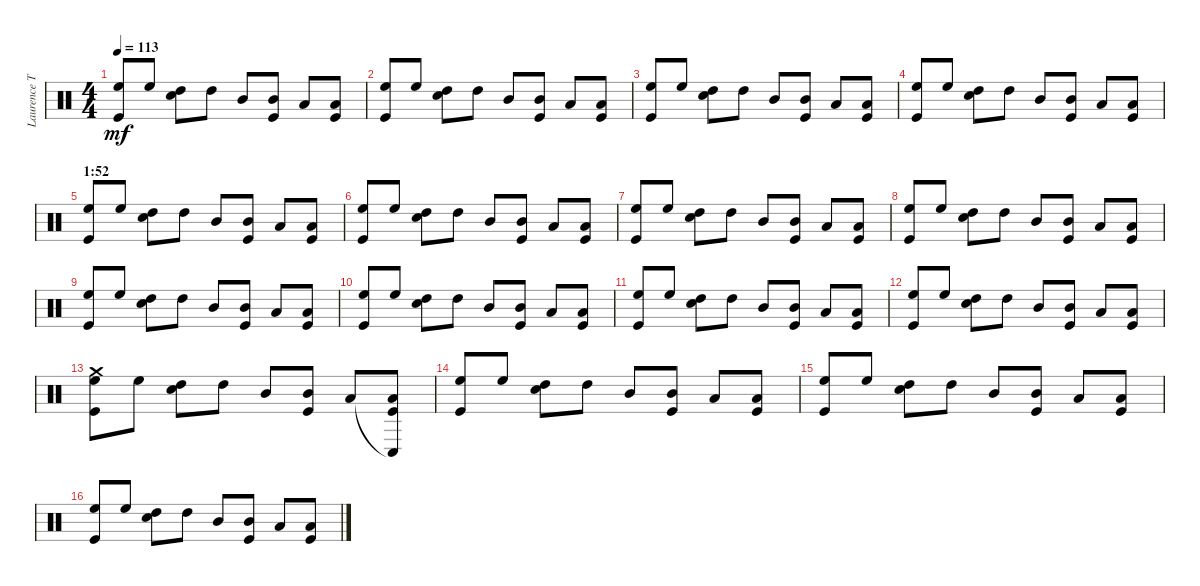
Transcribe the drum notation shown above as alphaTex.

\track ("Laurence Tolhurst (drums)" "Laurence T") {instrument percussion}
\staff {score}
\articulation defaults
\ts (4 4)
\tempo 113
\clef neutral
\ks c
("High Floor Tom (hit)" "Kick (hit)").8{dy mf} "High Floor Tom (hit)".8 ("High Tom (hit)" "Snare (hit) 2").8 "High Tom (hit)".8 "Mid Tom (hit)".8 ("Mid Tom (hit)" "Kick (hit)").8 "Low Tom (hit)".8 ("Low Tom (hit)" "Kick (hit)").8 |
("High Floor Tom (hit)" "Kick (hit)").8 "High Floor Tom (hit)".8 ("High Tom (hit)" "Snare (hit) 2").8 "High Tom (hit)".8 "Mid Tom (hit)".8 ("Mid Tom (hit)" "Kick (hit)").8 "Low Tom (hit)".8 ("Low Tom (hit)" "Kick (hit)").8 |
("High Floor Tom (hit)" "Kick (hit)").8 "High Floor Tom (hit)".8 ("High Tom (hit)" "Snare (hit) 2").8 "High Tom (hit)".8 "Mid Tom (hit)".8 ("Mid Tom (hit)" "Kick (hit)").8 "Low Tom (hit)".8 ("Low Tom (hit)" "Kick (hit)").8 |
("High Floor Tom (hit)" "Kick (hit)").8 "High Floor Tom (hit)".8 ("High Tom (hit)" "Snare (hit) 2").8 "High Tom (hit)".8 "Mid Tom (hit)".8 ("Mid Tom (hit)" "Kick (hit)").8 "Low Tom (hit)".8 ("Low Tom (hit)" "Kick (hit)").8 |
\section ("" "1:52")
("High Floor Tom (hit)" "Kick (hit)").8 "High Floor Tom (hit)".8 ("High Tom (hit)" "Snare (hit) 2").8 "High Tom (hit)".8 "Mid Tom (hit)".8 ("Mid Tom (hit)" "Kick (hit)").8 "Low Tom (hit)".8 ("Low Tom (hit)" "Kick (hit)").8 |
("High Floor Tom (hit)" "Kick (hit)").8 "High Floor Tom (hit)".8 ("High Tom (hit)" "Snare (hit) 2").8 "High Tom (hit)".8 "Mid Tom (hit)".8 ("Mid Tom (hit)" "Kick (hit)").8 "Low Tom (hit)".8 ("Low Tom (hit)" "Kick (hit)").8 |
("High Floor Tom (hit)" "Kick (hit)").8 "High Floor Tom (hit)".8 ("High Tom (hit)" "Snare (hit) 2").8 "High Tom (hit)".8 "Mid Tom (hit)".8 ("Mid Tom (hit)" "Kick (hit)").8 "Low Tom (hit)".8 ("Low Tom (hit)" "Kick (hit)").8 |
("High Floor Tom (hit)" "Kick (hit)").8 "High Floor Tom (hit)".8 ("High Tom (hit)" "Snare (hit) 2").8 "High Tom (hit)".8 "Mid Tom (hit)".8 ("Mid Tom (hit)" "Kick (hit)").8 "Low Tom (hit)".8 ("Low Tom (hit)" "Kick (hit)").8 |
("High Floor Tom (hit)" "Kick (hit)").8 "High Floor Tom (hit)".8 ("High Tom (hit)" "Snare (hit) 2").8 "High Tom (hit)".8 "Mid Tom (hit)".8 ("Mid Tom (hit)" "Kick (hit)").8 "Low Tom (hit)".8 ("Low Tom (hit)" "Kick (hit)").8 |
("High Floor Tom (hit)" "Kick (hit)").8 "High Floor Tom (hit)".8 ("High Tom (hit)" "Snare (hit) 2").8 "High Tom (hit)".8 "Mid Tom (hit)".8 ("Mid Tom (hit)" "Kick (hit)").8 "Low Tom (hit)".8 ("Low Tom (hit)" "Kick (hit)").8 |
("High Floor Tom (hit)" "Kick (hit)").8 "High Floor Tom (hit)".8 ("High Tom (hit)" "Snare (hit) 2").8 "High Tom (hit)".8 "Mid Tom (hit)".8 ("Mid Tom (hit)" "Kick (hit)").8 "Low Tom (hit)".8 ("Low Tom (hit)" "Kick (hit)").8 |
("High Floor Tom (hit)" "Kick (hit)").8 "High Floor Tom (hit)".8 ("High Tom (hit)" "Snare (hit) 2").8 "High Tom (hit)".8 "Mid Tom (hit)".8 ("Mid Tom (hit)" "Kick (hit)").8 "Low Tom (hit)".8 ("Low Tom (hit)" "Kick (hit)").8 |
("Crash medium (hit)" "High Floor Tom (hit)" "Kick (hit)").8 "High Floor Tom (hit)".8 ("High Tom (hit)" "Snare (hit) 2").8 "High Tom (hit)".8 "Mid Tom (hit)".8 ("Mid Tom (hit)" "Kick (hit)").8 "Low Tom (hit)".8 ("Conga low (hit)"{t} "Low Tom (hit)" "Kick (hit)").8 |
("High Floor Tom (hit)" "Kick (hit)").8 "High Floor Tom (hit)".8 ("High Tom (hit)" "Snare (hit) 2").8 "High Tom (hit)".8 "Mid Tom (hit)".8 ("Mid Tom (hit)" "Kick (hit)").8 "Low Tom (hit)".8 ("Low Tom (hit)" "Kick (hit)").8 |
("High Floor Tom (hit)" "Kick (hit)").8 "High Floor Tom (hit)".8 ("High Tom (hit)" "Snare (hit) 2").8 "High Tom (hit)".8 "Mid Tom (hit)".8 ("Mid Tom (hit)" "Kick (hit)").8 "Low Tom (hit)".8 ("Low Tom (hit)" "Kick (hit)").8 |
("High Floor Tom (hit)" "Kick (hit)").8 "High Floor Tom (hit)".8 ("High Tom (hit)" "Snare (hit) 2").8 "High Tom (hit)".8 "Mid Tom (hit)".8 ("Mid Tom (hit)" "Kick (hit)").8 "Low Tom (hit)".8 ("Low Tom (hit)" "Kick (hit)").8
